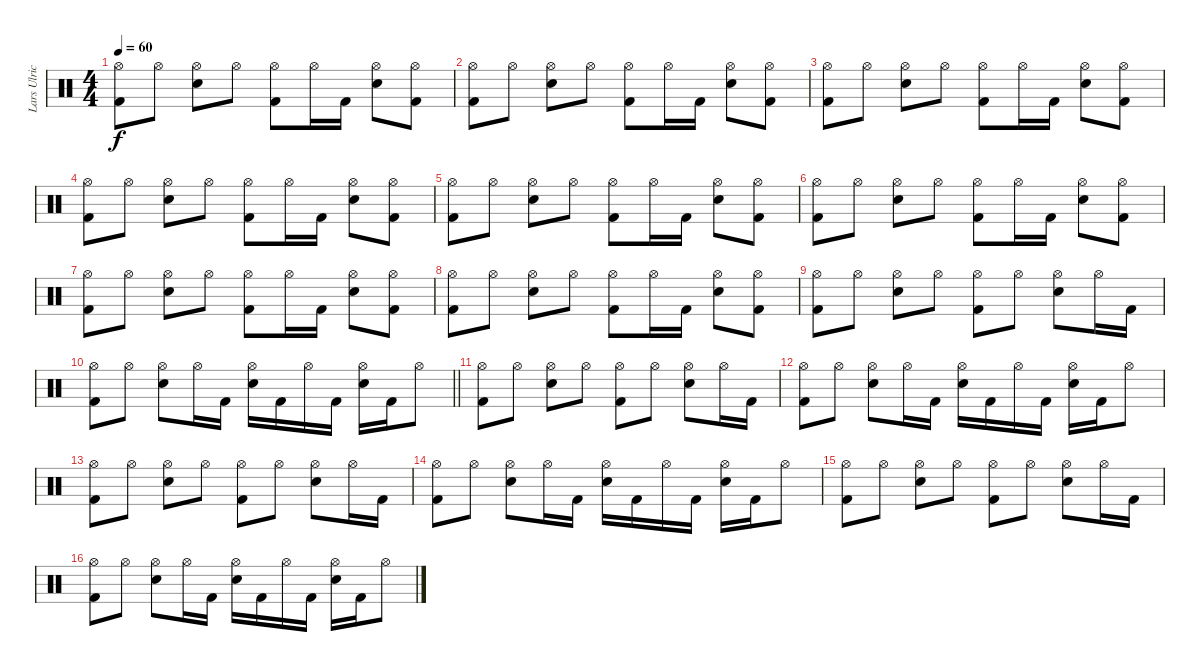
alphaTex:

\track ("Lars Ulrich" "Lars Ulric") {instrument percussion}
\staff {score}
\articulation defaults
\ts (4 4)
\tempo 60
\clef neutral
\ks c
("Kick (hit) 2" "Hi-Hat (open)").8{dy f} "Hi-Hat (open)".8 ("Snare (hit) 2" "Hi-Hat (open)").8 "Hi-Hat (open)".8 ("Kick (hit) 2" "Hi-Hat (open)").8 "Hi-Hat (open)".16 "Kick (hit) 2".16 ("Snare (hit) 2" "Hi-Hat (open)").8 ("Kick (hit) 2" "Hi-Hat (open)").8 |
("Kick (hit) 2" "Hi-Hat (open)").8 "Hi-Hat (open)".8 ("Snare (hit) 2" "Hi-Hat (open)").8 "Hi-Hat (open)".8 ("Kick (hit) 2" "Hi-Hat (open)").8 "Hi-Hat (open)".16 "Kick (hit) 2".16 ("Snare (hit) 2" "Hi-Hat (open)").8 ("Kick (hit) 2" "Hi-Hat (open)").8 |
("Kick (hit) 2" "Hi-Hat (open)").8 "Hi-Hat (open)".8 ("Snare (hit) 2" "Hi-Hat (open)").8 "Hi-Hat (open)".8 ("Kick (hit) 2" "Hi-Hat (open)").8 "Hi-Hat (open)".16 "Kick (hit) 2".16 ("Snare (hit) 2" "Hi-Hat (open)").8 ("Kick (hit) 2" "Hi-Hat (open)").8 |
("Kick (hit) 2" "Hi-Hat (open)").8 "Hi-Hat (open)".8 ("Snare (hit) 2" "Hi-Hat (open)").8 "Hi-Hat (open)".8 ("Kick (hit) 2" "Hi-Hat (open)").8 "Hi-Hat (open)".16 "Kick (hit) 2".16 ("Snare (hit) 2" "Hi-Hat (open)").8 ("Kick (hit) 2" "Hi-Hat (open)").8 |
("Kick (hit) 2" "Hi-Hat (open)").8 "Hi-Hat (open)".8 ("Snare (hit) 2" "Hi-Hat (open)").8 "Hi-Hat (open)".8 ("Kick (hit) 2" "Hi-Hat (open)").8 "Hi-Hat (open)".16 "Kick (hit) 2".16 ("Snare (hit) 2" "Hi-Hat (open)").8 ("Kick (hit) 2" "Hi-Hat (open)").8 |
("Kick (hit) 2" "Hi-Hat (open)").8 "Hi-Hat (open)".8 ("Snare (hit) 2" "Hi-Hat (open)").8 "Hi-Hat (open)".8 ("Kick (hit) 2" "Hi-Hat (open)").8 "Hi-Hat (open)".16 "Kick (hit) 2".16 ("Snare (hit) 2" "Hi-Hat (open)").8 ("Kick (hit) 2" "Hi-Hat (open)").8 |
("Kick (hit) 2" "Hi-Hat (open)").8 "Hi-Hat (open)".8 ("Snare (hit) 2" "Hi-Hat (open)").8 "Hi-Hat (open)".8 ("Kick (hit) 2" "Hi-Hat (open)").8 "Hi-Hat (open)".16 "Kick (hit) 2".16 ("Snare (hit) 2" "Hi-Hat (open)").8 ("Kick (hit) 2" "Hi-Hat (open)").8 |
("Kick (hit) 2" "Hi-Hat (open)").8 "Hi-Hat (open)".8 ("Snare (hit) 2" "Hi-Hat (open)").8 "Hi-Hat (open)".8 ("Kick (hit) 2" "Hi-Hat (open)").8 "Hi-Hat (open)".16 "Kick (hit) 2".16 ("Snare (hit) 2" "Hi-Hat (open)").8 ("Kick (hit) 2" "Hi-Hat (open)").8 |
("Kick (hit) 2" "Hi-Hat (open)").8 "Hi-Hat (open)".8 ("Snare (hit) 2" "Hi-Hat (open)").8 "Hi-Hat (open)".8 ("Kick (hit) 2" "Hi-Hat (open)").8 "Hi-Hat (open)".8 ("Snare (hit) 2" "Hi-Hat (open)").8 "Hi-Hat (open)".16 "Kick (hit) 2".16 |
\barLineRight lightlight
("Kick (hit) 2" "Hi-Hat (open)").8 "Hi-Hat (open)".8 ("Snare (hit) 2" "Hi-Hat (open)").8 "Hi-Hat (open)".16 "Kick (hit) 2".16 ("Snare (hit) 2" "Hi-Hat (open)").16 "Kick (hit) 2".16 "Hi-Hat (open)".16 "Kick (hit) 2".16 ("Snare (hit) 2" "Hi-Hat (open)").16 "Kick (hit) 2".16 "Hi-Hat (open)".8 |
("Kick (hit) 2" "Hi-Hat (open)").8 "Hi-Hat (open)".8 ("Snare (hit) 2" "Hi-Hat (open)").8 "Hi-Hat (open)".8 ("Kick (hit) 2" "Hi-Hat (open)").8 "Hi-Hat (open)".8 ("Snare (hit) 2" "Hi-Hat (open)").8 "Hi-Hat (open)".16 "Kick (hit) 2".16 |
("Kick (hit) 2" "Hi-Hat (open)").8 "Hi-Hat (open)".8 ("Snare (hit) 2" "Hi-Hat (open)").8 "Hi-Hat (open)".16 "Kick (hit) 2".16 ("Snare (hit) 2" "Hi-Hat (open)").16 "Kick (hit) 2".16 "Hi-Hat (open)".16 "Kick (hit) 2".16 ("Snare (hit) 2" "Hi-Hat (open)").16 "Kick (hit) 2".16 "Hi-Hat (open)".8 |
("Kick (hit) 2" "Hi-Hat (open)").8 "Hi-Hat (open)".8 ("Snare (hit) 2" "Hi-Hat (open)").8 "Hi-Hat (open)".8 ("Kick (hit) 2" "Hi-Hat (open)").8 "Hi-Hat (open)".8 ("Snare (hit) 2" "Hi-Hat (open)").8 "Hi-Hat (open)".16 "Kick (hit) 2".16 |
("Kick (hit) 2" "Hi-Hat (open)").8 "Hi-Hat (open)".8 ("Snare (hit) 2" "Hi-Hat (open)").8 "Hi-Hat (open)".16 "Kick (hit) 2".16 ("Snare (hit) 2" "Hi-Hat (open)").16 "Kick (hit) 2".16 "Hi-Hat (open)".16 "Kick (hit) 2".16 ("Snare (hit) 2" "Hi-Hat (open)").16 "Kick (hit) 2".16 "Hi-Hat (open)".8 |
("Kick (hit) 2" "Hi-Hat (open)").8 "Hi-Hat (open)".8 ("Snare (hit) 2" "Hi-Hat (open)").8 "Hi-Hat (open)".8 ("Kick (hit) 2" "Hi-Hat (open)").8 "Hi-Hat (open)".8 ("Snare (hit) 2" "Hi-Hat (open)").8 "Hi-Hat (open)".16 "Kick (hit) 2".16 |
("Kick (hit) 2" "Hi-Hat (open)").8 "Hi-Hat (open)".8 ("Snare (hit) 2" "Hi-Hat (open)").8 "Hi-Hat (open)".16 "Kick (hit) 2".16 ("Snare (hit) 2" "Hi-Hat (open)").16 "Kick (hit) 2".16 "Hi-Hat (open)".16 "Kick (hit) 2".16 ("Snare (hit) 2" "Hi-Hat (open)").16 "Kick (hit) 2".16 "Hi-Hat (open)".8
